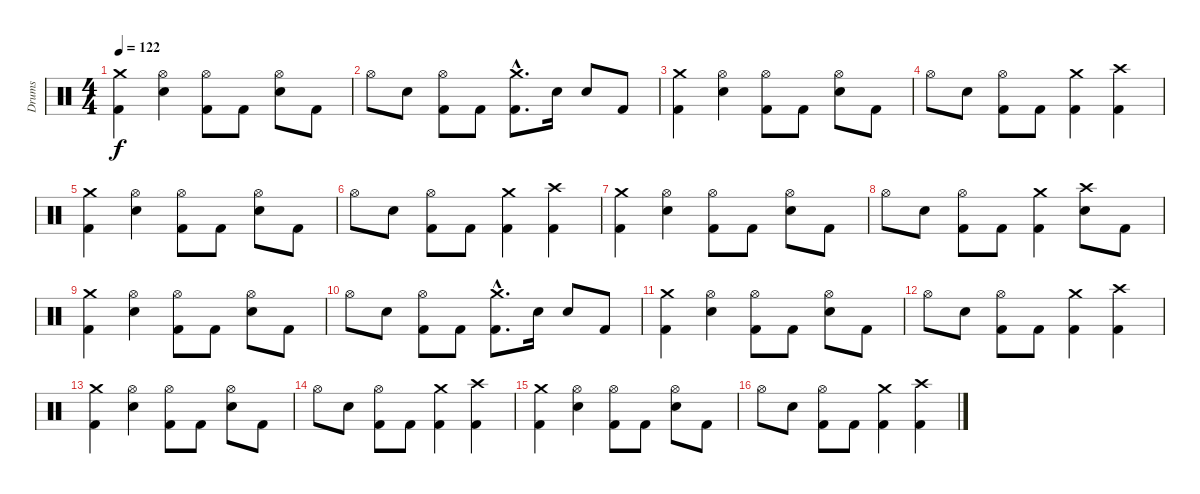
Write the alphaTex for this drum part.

\track ("Drums" "Drums") {instrument percussion}
\staff {score}
\articulation defaults
\ts (4 4)
\tempo 122
\clef neutral
\ks c
("Crash medium (hit)" "Kick (hit) 2").4{dy f} ("Hi-Hat (open)" "Electric Snare (hit)").4 ("Hi-Hat (open)" "Kick (hit) 2").8 "Kick (hit) 2".8 ("Hi-Hat (open)" "Electric Snare (hit)").8 "Kick (hit) 2".8 |
"Hi-Hat (open)".8 "Electric Snare (hit)".8 ("Hi-Hat (open)" "Kick (hit) 2").8 "Kick (hit) 2".8 ("Crash medium (hit)"{hac} "Kick (hit) 2"{hac}).8{d} "Electric Snare (hit)".16 "Electric Snare (hit)".8 "Kick (hit) 2".8 |
("Crash medium (hit)" "Kick (hit) 2").4 ("Hi-Hat (open)" "Electric Snare (hit)").4 ("Hi-Hat (open)" "Kick (hit) 2").8 "Kick (hit) 2".8 ("Hi-Hat (open)" "Electric Snare (hit)").8 "Kick (hit) 2".8 |
"Hi-Hat (open)".8 "Electric Snare (hit)".8 ("Hi-Hat (open)" "Kick (hit) 2").8 "Kick (hit) 2".8 ("Crash medium (hit)" "Kick (hit) 2").4 ("Crash high (hit)" "Kick (hit) 2").4 |
("Crash medium (hit)" "Kick (hit) 2").4 ("Hi-Hat (open)" "Electric Snare (hit)").4 ("Hi-Hat (open)" "Kick (hit) 2").8 "Kick (hit) 2".8 ("Hi-Hat (open)" "Electric Snare (hit)").8 "Kick (hit) 2".8 |
"Hi-Hat (open)".8 "Electric Snare (hit)".8 ("Hi-Hat (open)" "Kick (hit) 2").8 "Kick (hit) 2".8 ("Crash medium (hit)" "Kick (hit) 2").4 ("Crash high (hit)" "Kick (hit) 2").4 |
("Crash medium (hit)" "Kick (hit) 2").4 ("Hi-Hat (open)" "Electric Snare (hit)").4 ("Hi-Hat (open)" "Kick (hit) 2").8 "Kick (hit) 2".8 ("Hi-Hat (open)" "Electric Snare (hit)").8 "Kick (hit) 2".8 |
"Hi-Hat (open)".8 "Electric Snare (hit)".8 ("Hi-Hat (open)" "Kick (hit) 2").8 "Kick (hit) 2".8 ("Crash medium (hit)" "Kick (hit) 2").4 ("Crash high (hit)" "Electric Snare (hit)").8 "Kick (hit) 2".8 |
("Crash medium (hit)" "Kick (hit) 2").4 ("Hi-Hat (open)" "Electric Snare (hit)").4 ("Hi-Hat (open)" "Kick (hit) 2").8 "Kick (hit) 2".8 ("Hi-Hat (open)" "Electric Snare (hit)").8 "Kick (hit) 2".8 |
"Hi-Hat (open)".8 "Electric Snare (hit)".8 ("Hi-Hat (open)" "Kick (hit) 2").8 "Kick (hit) 2".8 ("Crash medium (hit)"{hac} "Kick (hit) 2"{hac}).8{d} "Electric Snare (hit)".16 "Electric Snare (hit)".8 "Kick (hit) 2".8 |
("Crash medium (hit)" "Kick (hit) 2").4 ("Hi-Hat (open)" "Electric Snare (hit)").4 ("Hi-Hat (open)" "Kick (hit) 2").8 "Kick (hit) 2".8 ("Hi-Hat (open)" "Electric Snare (hit)").8 "Kick (hit) 2".8 |
"Hi-Hat (open)".8 "Electric Snare (hit)".8 ("Hi-Hat (open)" "Kick (hit) 2").8 "Kick (hit) 2".8 ("Crash medium (hit)" "Kick (hit) 2").4 ("Crash high (hit)" "Kick (hit) 2").4 |
("Crash medium (hit)" "Kick (hit) 2").4 ("Hi-Hat (open)" "Electric Snare (hit)").4 ("Hi-Hat (open)" "Kick (hit) 2").8 "Kick (hit) 2".8 ("Hi-Hat (open)" "Electric Snare (hit)").8 "Kick (hit) 2".8 |
"Hi-Hat (open)".8 "Electric Snare (hit)".8 ("Hi-Hat (open)" "Kick (hit) 2").8 "Kick (hit) 2".8 ("Crash medium (hit)" "Kick (hit) 2").4 ("Crash high (hit)" "Kick (hit) 2").4 |
("Crash medium (hit)" "Kick (hit) 2").4 ("Hi-Hat (open)" "Electric Snare (hit)").4 ("Hi-Hat (open)" "Kick (hit) 2").8 "Kick (hit) 2".8 ("Hi-Hat (open)" "Electric Snare (hit)").8 "Kick (hit) 2".8 |
"Hi-Hat (open)".8 "Electric Snare (hit)".8 ("Hi-Hat (open)" "Kick (hit) 2").8 "Kick (hit) 2".8 ("Crash medium (hit)" "Kick (hit) 2").4 ("Crash high (hit)" "Kick (hit) 2").4
